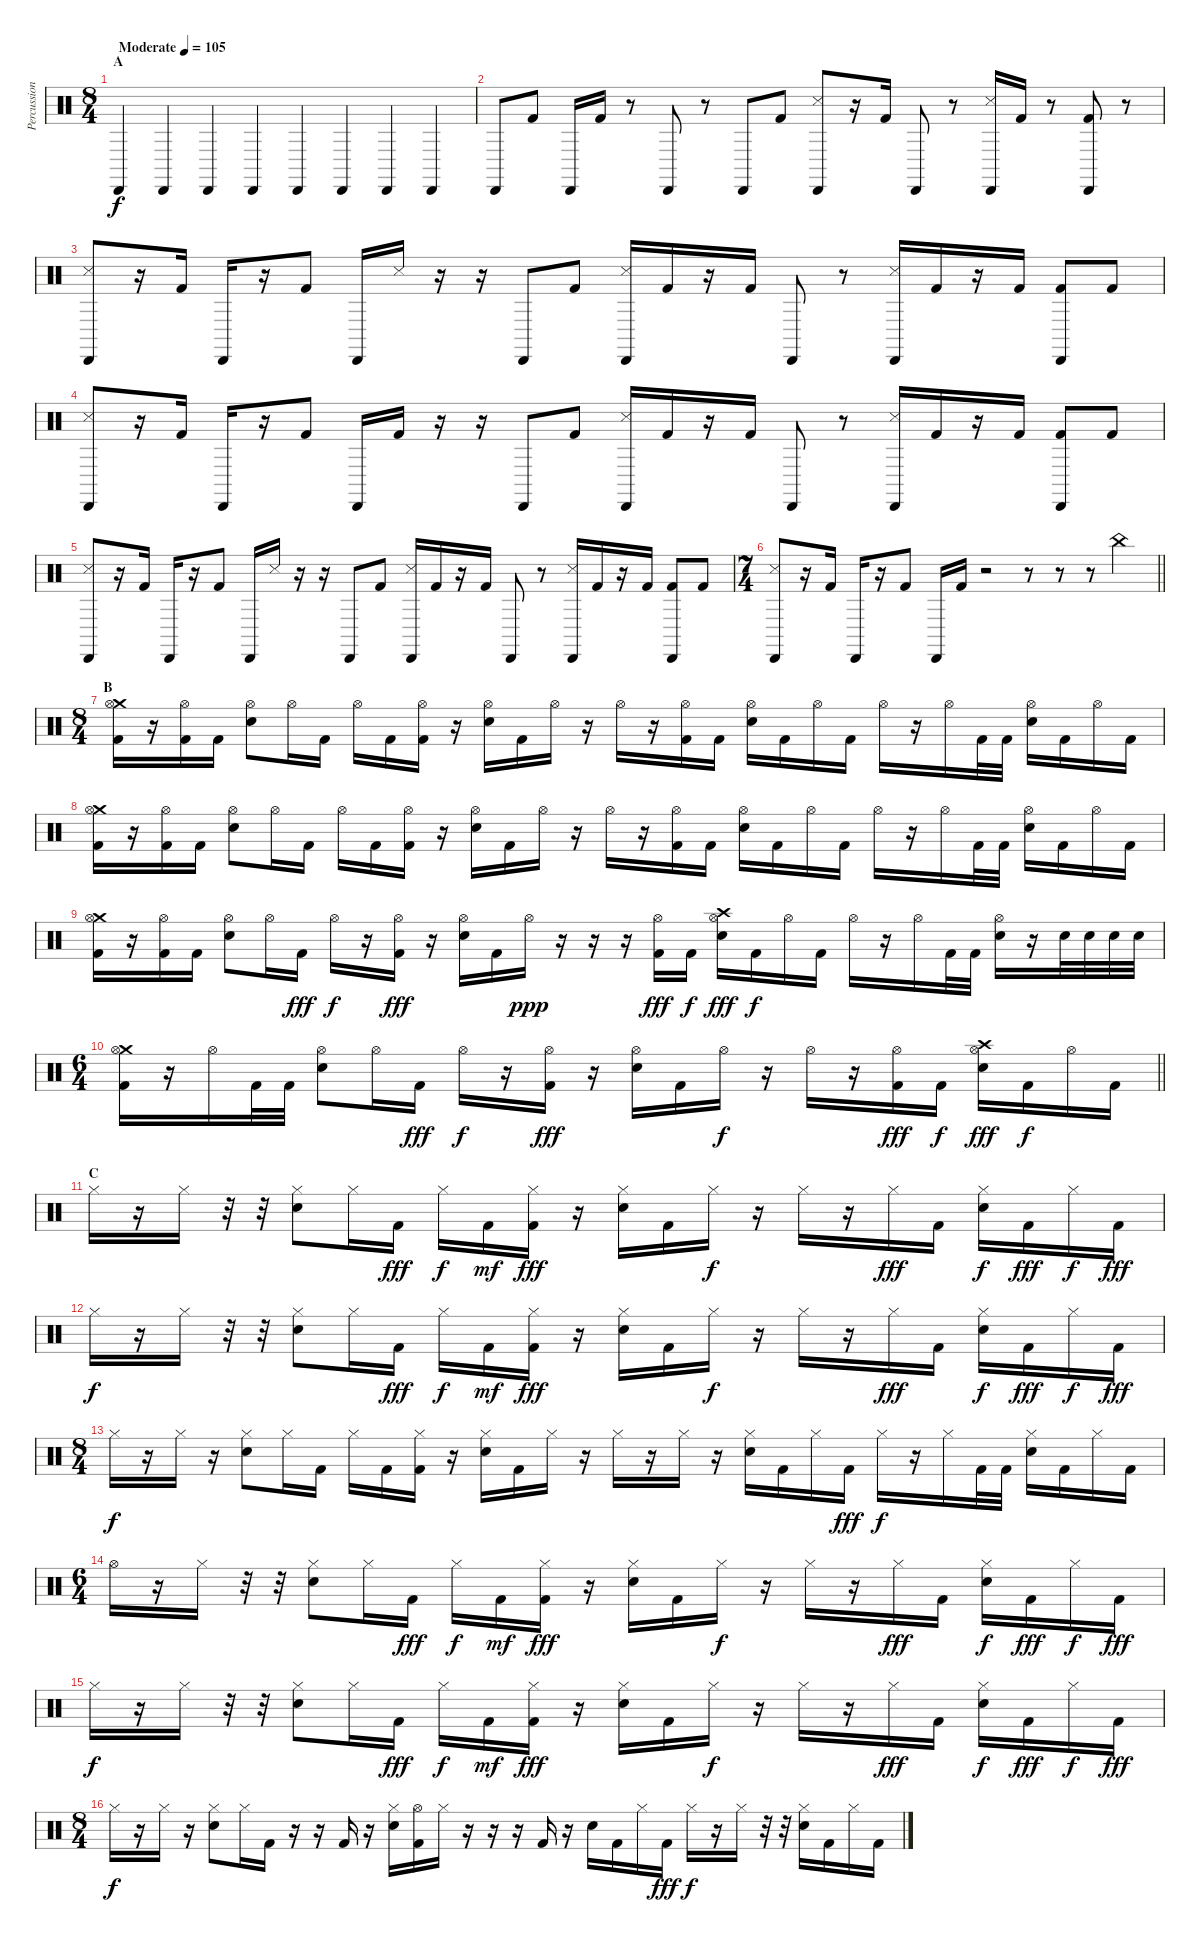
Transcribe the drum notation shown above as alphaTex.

\track ("Percussions" "Percussion") {instrument percussion}
\staff {score}
\articulation defaults
\ts (8 4)
\section ("" "A")
\tempo (105 "Moderate")
\clef neutral
\ks c "Cabasa (hit)".4{dy f} "Cabasa (hit)".4 "Cabasa (hit)".4 "Cabasa (hit)".4 "Cabasa (hit)".4 "Cabasa (hit)".4 "Cabasa (hit)".4 "Cabasa (hit)".4
|
"Cabasa (hit)".8 "Kick (hit) 2".8 "Cabasa (hit)".16 "Kick (hit) 2".16 r.8 "Cabasa (hit)".8 r.8 "Cabasa (hit)".8 "Kick (hit) 2".8 ("Cabasa (hit)" "Metronome (hit)").8 r.16 "Kick (hit) 2".16 "Cabasa (hit)".8 r.8 ("Cabasa (hit)" "Metronome (hit)").16 "Kick (hit) 2".16 r.8 ("Cabasa (hit)" "Kick (hit) 2").8 r.8 |
("Cabasa (hit)" "Metronome (hit)").8 r.16 "Kick (hit) 2".16 "Cabasa (hit)".16 r.16 "Kick (hit) 2".8 "Cabasa (hit)".16 "Metronome (hit)".16 r.16 r.16 "Cabasa (hit)".8 "Kick (hit) 2".8 ("Cabasa (hit)" "Metronome (hit)").16 "Kick (hit) 2".16 r.16 "Kick (hit) 2".16 "Cabasa (hit)".8 r.8 ("Cabasa (hit)" "Metronome (hit)").16 "Kick (hit) 2".16 r.16 "Kick (hit) 2".16 ("Cabasa (hit)" "Kick (hit) 2").8 "Kick (hit) 2".8 |
("Cabasa (hit)" "Metronome (hit)").8 r.16 "Kick (hit) 2".16 "Cabasa (hit)".16 r.16 "Kick (hit) 2".8 "Cabasa (hit)".16 "Kick (hit) 2".16 r.16 r.16 "Cabasa (hit)".8 "Kick (hit) 2".8 ("Cabasa (hit)" "Metronome (hit)").16 "Kick (hit) 2".16 r.16 "Kick (hit) 2".16 "Cabasa (hit)".8 r.8 ("Cabasa (hit)" "Metronome (hit)").16 "Kick (hit) 2".16 r.16 "Kick (hit) 2".16 ("Cabasa (hit)" "Kick (hit) 2").8 "Kick (hit) 2".8 |
("Cabasa (hit)" "Metronome (hit)").8 r.16 "Kick (hit) 2".16 "Cabasa (hit)".16 r.16 "Kick (hit) 2".8 "Cabasa (hit)".16 "Metronome (hit)".16 r.16 r.16 "Cabasa (hit)".8 "Kick (hit) 2".8 ("Cabasa (hit)" "Metronome (hit)").16 "Kick (hit) 2".16 r.16 "Kick (hit) 2".16 "Cabasa (hit)".8 r.8 ("Cabasa (hit)" "Metronome (hit)").16 "Kick (hit) 2".16 r.16 "Kick (hit) 2".16 ("Cabasa (hit)" "Kick (hit) 2").8 "Kick (hit) 2".8 |
\ts (7 4)
\barLineRight lightlight
("Cabasa (hit)" "Metronome (hit)").8 r.16 "Kick (hit) 2".16 "Cabasa (hit)".16 r.16 "Kick (hit) 2".8 "Cabasa (hit)".16 "Kick (hit) 2".16 r.2 r.8 r.8 r.8 "China (hit)".4 |
\ts (8 4)
\section ("" "B")
("Crash medium (hit)" "Hi-Hat (open)" "Kick (hit) 2").16 r.16 ("Hi-Hat (open)" "Kick (hit) 2").16 "Kick (hit) 2".16 ("Hi-Hat (open)" "Snare (hit) 2").8 "Hi-Hat (open)".16 "Kick (hit) 2".16 "Hi-Hat (open)".16 "Kick (hit) 2".16 ("Hi-Hat (open)" "Kick (hit) 2").16 r.16 ("Hi-Hat (open)" "Snare (hit) 2").16 "Kick (hit) 2".16 "Hi-Hat (open)".16 r.16 "Hi-Hat (open)".16 r.16 ("Hi-Hat (open)" "Kick (hit) 2").16 "Kick (hit) 2".16 ("Hi-Hat (open)" "Snare (hit) 2").16 "Kick (hit) 2".16 "Hi-Hat (open)".16 "Kick (hit) 2".16 "Hi-Hat (open)".16 r.16 "Hi-Hat (open)".16 "Kick (hit) 2".32 "Kick (hit) 2".32 ("Hi-Hat (open)" "Snare (hit) 2").16 "Kick (hit) 2".16 "Hi-Hat (open)".16 "Kick (hit) 2".16 |
("Crash medium (hit)" "Hi-Hat (open)" "Kick (hit) 2").16 r.16 ("Hi-Hat (open)" "Kick (hit) 2").16 "Kick (hit) 2".16 ("Hi-Hat (open)" "Snare (hit) 2").8 "Hi-Hat (open)".16 "Kick (hit) 2".16 "Hi-Hat (open)".16 "Kick (hit) 2".16 ("Hi-Hat (open)" "Kick (hit) 2").16 r.16 ("Hi-Hat (open)" "Snare (hit) 2").16 "Kick (hit) 2".16 "Hi-Hat (open)".16 r.16 "Hi-Hat (open)".16 r.16 ("Hi-Hat (open)" "Kick (hit) 2").16 "Kick (hit) 2".16 ("Hi-Hat (open)" "Snare (hit) 2").16 "Kick (hit) 2".16 "Hi-Hat (open)".16 "Kick (hit) 2".16 "Hi-Hat (open)".16 r.16 "Hi-Hat (open)".16 "Kick (hit) 2".32 "Kick (hit) 2".32 ("Hi-Hat (open)" "Snare (hit) 2").16 "Kick (hit) 2".16 "Hi-Hat (open)".16 "Kick (hit) 2".16 |
("Crash medium (hit)" "Hi-Hat (open)" "Kick (hit) 2").16 r.16 ("Hi-Hat (open)" "Kick (hit) 2").16 "Kick (hit) 2".16 ("Hi-Hat (open)" "Snare (hit) 2").8 "Hi-Hat (open)".16 "Kick (hit) 2".16{dy fff} "Hi-Hat (open)".16{dy f} r.16 ("Hi-Hat (open)" "Kick (hit) 2").16{dy fff} r.16 ("Hi-Hat (open)" "Snare (hit) 2").16 "Kick (hit) 2".16 "Hi-Hat (open)".16{dy ppp} r.16 r.16 r.16 ("Hi-Hat (open)" "Kick (hit) 2").16{dy fff} "Kick (hit) 2".16{dy f} ("Crash high (hit)" "Hi-Hat (open)" "Snare (hit) 2").16{dy fff} "Kick (hit) 2".16{dy f} "Hi-Hat (open)".16 "Kick (hit) 2".16 "Hi-Hat (open)".16 r.16 "Hi-Hat (open)".16 "Kick (hit) 2".32 "Kick (hit) 2".32 ("Hi-Hat (open)" "Snare (hit) 2").16 r.16 "Snare (hit) 2".32 "Snare (hit) 2".32 "Snare (hit) 2".32 "Snare (hit) 2".32 |
\ts (6 4)
\barLineRight lightlight
("Crash medium (hit)" "Hi-Hat (open)" "Kick (hit) 2").16 r.16 "Hi-Hat (open)".16 "Kick (hit) 2".32 "Kick (hit) 2".32 ("Hi-Hat (open)" "Snare (hit) 2").8 "Hi-Hat (open)".16 "Kick (hit) 2".16{dy fff} "Hi-Hat (open)".16{dy f} r.16 ("Hi-Hat (open)" "Kick (hit) 2").16{dy fff} r.16 ("Hi-Hat (open)" "Snare (hit) 2").16 "Kick (hit) 2".16 "Hi-Hat (open)".16{dy f} r.16 "Hi-Hat (open)".16 r.16 ("Hi-Hat (open)" "Kick (hit) 2").16{dy fff} "Kick (hit) 2".16{dy f} ("Crash high (hit)" "Hi-Hat (open)" "Snare (hit) 2").16{dy fff} "Kick (hit) 2".16{dy f} "Hi-Hat (open)".16 "Kick (hit) 2".16 |
\section ("" "C")
"Hi-Hat (closed)".16 r.16 "Hi-Hat (closed)".16 r.32 r.32 ("Hi-Hat (closed)" "Snare (hit) 2").8 "Hi-Hat (closed)".16 "Kick (hit) 2".16{dy fff} "Hi-Hat (closed)".16{dy f} "Kick (hit) 2".16{dy mf} ("Hi-Hat (closed)" "Kick (hit) 2").16{dy fff} r.16 ("Hi-Hat (closed)" "Snare (hit) 2").16 "Kick (hit) 2".16 "Hi-Hat (closed)".16{dy f} r.16 "Hi-Hat (closed)".16 r.16 "Hi-Hat (closed)".16{dy fff} "Kick (hit) 2".16 ("Hi-Hat (closed)" "Snare (hit) 2").16{dy f} "Kick (hit) 2".16{dy fff} "Hi-Hat (closed)".16{dy f} "Kick (hit) 2".16{dy fff} |
"Hi-Hat (closed)".16{dy f} r.16 "Hi-Hat (closed)".16 r.32 r.32 ("Hi-Hat (closed)" "Snare (hit) 2").8 "Hi-Hat (closed)".16 "Kick (hit) 2".16{dy fff} "Hi-Hat (closed)".16{dy f} "Kick (hit) 2".16{dy mf} ("Hi-Hat (closed)" "Kick (hit) 2").16{dy fff} r.16 ("Hi-Hat (closed)" "Snare (hit) 2").16 "Kick (hit) 2".16 "Hi-Hat (closed)".16{dy f} r.16 "Hi-Hat (closed)".16 r.16 "Hi-Hat (closed)".16{dy fff} "Kick (hit) 2".16 ("Hi-Hat (closed)" "Snare (hit) 2").16{dy f} "Kick (hit) 2".16{dy fff} "Hi-Hat (closed)".16{dy f} "Kick (hit) 2".16{dy fff} |
\ts (8 4)
"Hi-Hat (closed)".16{dy f} r.16 "Hi-Hat (closed)".16 r.16 ("Hi-Hat (closed)" "Snare (hit) 2").8 "Hi-Hat (closed)".16 "Kick (hit) 2".16 "Hi-Hat (closed)".16 "Kick (hit) 2".16 ("Hi-Hat (closed)" "Kick (hit) 2").16 r.16 ("Hi-Hat (closed)" "Snare (hit) 2").16 "Kick (hit) 2".16 "Hi-Hat (closed)".16 r.16 "Hi-Hat (closed)".16 r.16 "Hi-Hat (closed)".16 r.16 ("Hi-Hat (closed)" "Snare (hit) 2").16 "Kick (hit) 2".16 "Hi-Hat (closed)".16 "Kick (hit) 2".16{dy fff} "Hi-Hat (closed)".16{dy f} r.16 "Hi-Hat (closed)".16 "Kick (hit) 2".32 "Kick (hit) 2".32 ("Hi-Hat (closed)" "Snare (hit) 2").16 "Kick (hit) 2".16 "Hi-Hat (closed)".16 "Kick (hit) 2".16 |
\ts (6 4)
"Hi-Hat (open)".16 r.16 "Hi-Hat (closed)".16 r.32 r.32 ("Hi-Hat (closed)" "Snare (hit) 2").8 "Hi-Hat (closed)".16 "Kick (hit) 2".16{dy fff} "Hi-Hat (closed)".16{dy f} "Kick (hit) 2".16{dy mf} ("Hi-Hat (closed)" "Kick (hit) 2").16{dy fff} r.16 ("Hi-Hat (closed)" "Snare (hit) 2").16 "Kick (hit) 2".16 "Hi-Hat (closed)".16{dy f} r.16 "Hi-Hat (closed)".16 r.16 "Hi-Hat (closed)".16{dy fff} "Kick (hit) 2".16 ("Hi-Hat (closed)" "Snare (hit) 2").16{dy f} "Kick (hit) 2".16{dy fff} "Hi-Hat (closed)".16{dy f} "Kick (hit) 2".16{dy fff} |
"Hi-Hat (closed)".16{dy f} r.16 "Hi-Hat (closed)".16 r.32 r.32 ("Hi-Hat (closed)" "Snare (hit) 2").8 "Hi-Hat (closed)".16 "Kick (hit) 2".16{dy fff} "Hi-Hat (closed)".16{dy f} "Kick (hit) 2".16{dy mf} ("Hi-Hat (closed)" "Kick (hit) 2").16{dy fff} r.16 ("Hi-Hat (closed)" "Snare (hit) 2").16 "Kick (hit) 2".16 "Hi-Hat (closed)".16{dy f} r.16 "Hi-Hat (closed)".16 r.16 "Hi-Hat (closed)".16{dy fff} "Kick (hit) 2".16 ("Hi-Hat (closed)" "Snare (hit) 2").16{dy f} "Kick (hit) 2".16{dy fff} "Hi-Hat (closed)".16{dy f} "Kick (hit) 2".16{dy fff} |
\ts (8 4)
"Hi-Hat (closed)".16{dy f} r.16 "Hi-Hat (closed)".16 r.16 ("Hi-Hat (closed)" "Snare (hit) 2").8 "Hi-Hat (closed)".16 "Kick (hit) 2".16 r.16 r.16 "Kick (hit) 2".16 r.16 ("Hi-Hat (closed)" "Snare (hit) 2").16 ("Hi-Hat (open)" "Kick (hit) 2").16 "Hi-Hat (closed)".16 r.16 r.16 r.16 "Kick (hit) 2".16 r.16 "Snare (hit) 2".16 "Kick (hit) 2".16 "Hi-Hat (closed)".16 "Kick (hit) 2".16{dy fff} "Hi-Hat (closed)".16{dy f} r.16 "Hi-Hat (closed)".16 r.32 r.32 ("Hi-Hat (closed)" "Snare (hit) 2").16 "Kick (hit) 2".16 "Hi-Hat (closed)".16 "Kick (hit) 2".16
